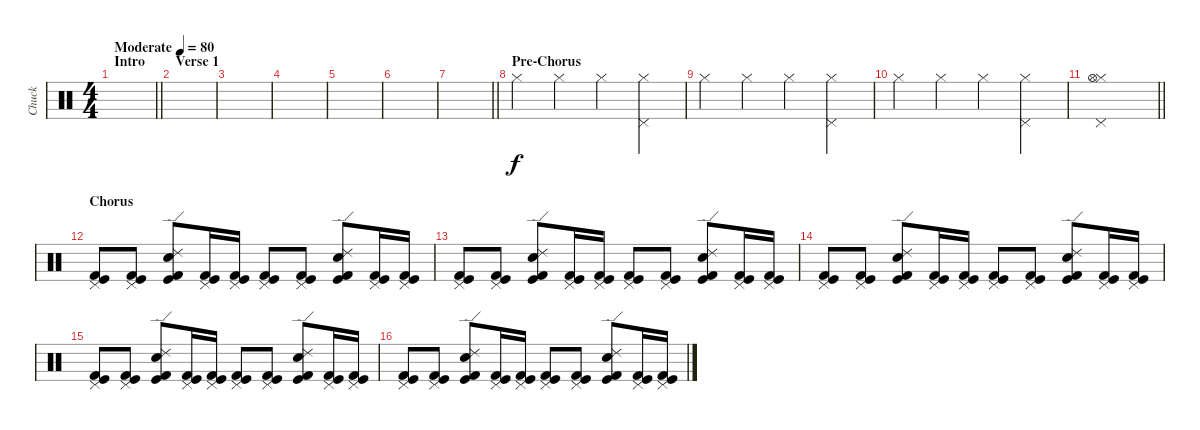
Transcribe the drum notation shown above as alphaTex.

\track ("Chuck" "Chuck") {instrument percussion}
\staff {score}
\articulation defaults
\ts (4 4)
\section ("" "Intro")
\tempo (80 "Moderate")
\clef neutral
\barLineRight lightlight
\ks c
|
\section ("" "Verse 1")
|
|
|
|
|
\barLineRight lightlight
|
\section ("" "Pre-Chorus")
"Hi-Hat (closed)".4 "Hi-Hat (closed)".4 "Hi-Hat (closed)".4 ("Hi-Hat (closed)" "Pedal Hi-Hat (hit)").4 |
"Hi-Hat (closed)".4 "Hi-Hat (closed)".4 "Hi-Hat (closed)".4 ("Hi-Hat (closed)" "Pedal Hi-Hat (hit)").4 |
"Hi-Hat (closed)".4 "Hi-Hat (closed)".4 "Hi-Hat (closed)".4 ("Hi-Hat (closed)" "Pedal Hi-Hat (hit)").4 |
\barLineRight lightlight
("Hi-Hat (closed)" "Pedal Hi-Hat (hit)" "Hi-Hat (open)").1 |
\section ("" "Chorus")
("Pedal Hi-Hat (hit)" "Kick (hit)" "Kick (hit) 2").8 ("Pedal Hi-Hat (hit)" "Kick (hit)" "Kick (hit) 2").8 ("Ride (edge) 2" "Kick (hit)" "Kick (hit) 2" "Electric Snare (hit)").8 ("Pedal Hi-Hat (hit)" "Kick (hit)" "Kick (hit) 2").16 ("Pedal Hi-Hat (hit)" "Kick (hit)" "Kick (hit) 2").16 ("Pedal Hi-Hat (hit)" "Kick (hit)" "Kick (hit) 2").8 ("Pedal Hi-Hat (hit)" "Kick (hit)" "Kick (hit) 2").8 ("Ride (edge) 2" "Kick (hit)" "Kick (hit) 2" "Electric Snare (hit)").8 ("Pedal Hi-Hat (hit)" "Kick (hit)" "Kick (hit) 2").16 ("Pedal Hi-Hat (hit)" "Kick (hit)" "Kick (hit) 2").16 |
("Pedal Hi-Hat (hit)" "Kick (hit)" "Kick (hit) 2").8 ("Pedal Hi-Hat (hit)" "Kick (hit)" "Kick (hit) 2").8 ("Ride (edge) 2" "Kick (hit)" "Kick (hit) 2" "Electric Snare (hit)").8 ("Pedal Hi-Hat (hit)" "Kick (hit)" "Kick (hit) 2").16 ("Pedal Hi-Hat (hit)" "Kick (hit)" "Kick (hit) 2").16 ("Pedal Hi-Hat (hit)" "Kick (hit)" "Kick (hit) 2").8 ("Pedal Hi-Hat (hit)" "Kick (hit)" "Kick (hit) 2").8 ("Ride (edge) 2" "Kick (hit)" "Kick (hit) 2" "Electric Snare (hit)").8 ("Pedal Hi-Hat (hit)" "Kick (hit)" "Kick (hit) 2").16 ("Pedal Hi-Hat (hit)" "Kick (hit)" "Kick (hit) 2").16 |
("Pedal Hi-Hat (hit)" "Kick (hit)" "Kick (hit) 2").8 ("Pedal Hi-Hat (hit)" "Kick (hit)" "Kick (hit) 2").8 ("Ride (edge) 2" "Kick (hit)" "Kick (hit) 2" "Electric Snare (hit)").8 ("Pedal Hi-Hat (hit)" "Kick (hit)" "Kick (hit) 2").16 ("Pedal Hi-Hat (hit)" "Kick (hit)" "Kick (hit) 2").16 ("Pedal Hi-Hat (hit)" "Kick (hit)" "Kick (hit) 2").8 ("Pedal Hi-Hat (hit)" "Kick (hit)" "Kick (hit) 2").8 ("Ride (edge) 2" "Kick (hit)" "Kick (hit) 2" "Electric Snare (hit)").8 ("Pedal Hi-Hat (hit)" "Kick (hit)" "Kick (hit) 2").16 ("Pedal Hi-Hat (hit)" "Kick (hit)" "Kick (hit) 2").16 |
("Pedal Hi-Hat (hit)" "Kick (hit)" "Kick (hit) 2").8 ("Pedal Hi-Hat (hit)" "Kick (hit)" "Kick (hit) 2").8 ("Ride (edge) 2" "Kick (hit)" "Kick (hit) 2" "Electric Snare (hit)").8 ("Pedal Hi-Hat (hit)" "Kick (hit)" "Kick (hit) 2").16 ("Pedal Hi-Hat (hit)" "Kick (hit)" "Kick (hit) 2").16 ("Pedal Hi-Hat (hit)" "Kick (hit)" "Kick (hit) 2").8 ("Pedal Hi-Hat (hit)" "Kick (hit)" "Kick (hit) 2").8 ("Ride (edge) 2" "Kick (hit)" "Kick (hit) 2" "Electric Snare (hit)").8 ("Pedal Hi-Hat (hit)" "Kick (hit)" "Kick (hit) 2").16 ("Pedal Hi-Hat (hit)" "Kick (hit)" "Kick (hit) 2").16 |
("Pedal Hi-Hat (hit)" "Kick (hit)" "Kick (hit) 2").8 ("Pedal Hi-Hat (hit)" "Kick (hit)" "Kick (hit) 2").8 ("Ride (edge) 2" "Kick (hit)" "Kick (hit) 2" "Electric Snare (hit)").8 ("Pedal Hi-Hat (hit)" "Kick (hit)" "Kick (hit) 2").16 ("Pedal Hi-Hat (hit)" "Kick (hit)" "Kick (hit) 2").16 ("Pedal Hi-Hat (hit)" "Kick (hit)" "Kick (hit) 2").8 ("Pedal Hi-Hat (hit)" "Kick (hit)" "Kick (hit) 2").8 ("Ride (edge) 2" "Kick (hit)" "Kick (hit) 2" "Electric Snare (hit)").8 ("Pedal Hi-Hat (hit)" "Kick (hit)" "Kick (hit) 2").16 ("Pedal Hi-Hat (hit)" "Kick (hit)" "Kick (hit) 2").16
